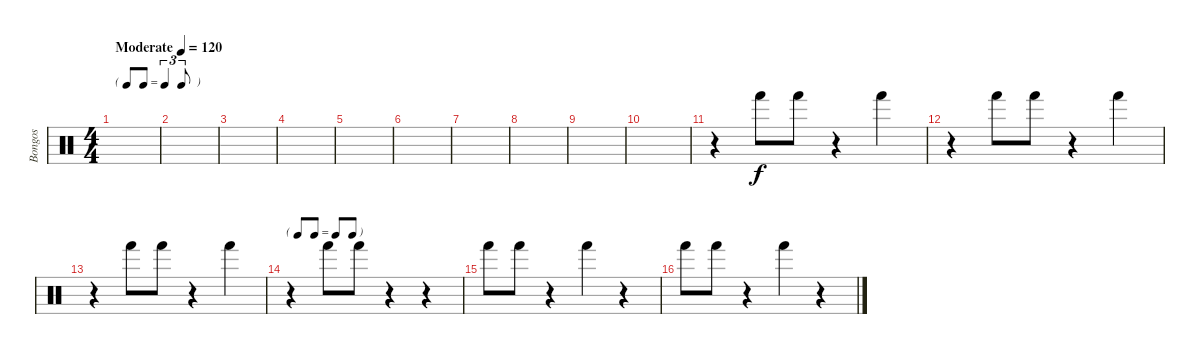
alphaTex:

\track ("Bongos" "Bongos") {instrument percussion}
\staff {score}
\articulation defaults
\ts (4 4)
\tf triplet8th
\tempo (120 "Moderate")
\clef neutral
\ks c
|
|
|
|
|
|
|
|
|
|
r.4 "Hand (hit)".8 "Hand (hit)".8 r.4 "Hand (hit)".4 |
r.4 "Hand (hit)".8 "Hand (hit)".8 r.4 "Hand (hit)".4 |
r.4 "Hand (hit)".8 "Hand (hit)".8 r.4 "Hand (hit)".4 |
\tf none
r.4 "Hand (hit)".8 "Hand (hit)".8 r.4 r.4 |
"Hand (hit)".8 "Hand (hit)".8 r.4 "Hand (hit)".4 r.4 |
"Hand (hit)".8 "Hand (hit)".8 r.4 "Hand (hit)".4 r.4
